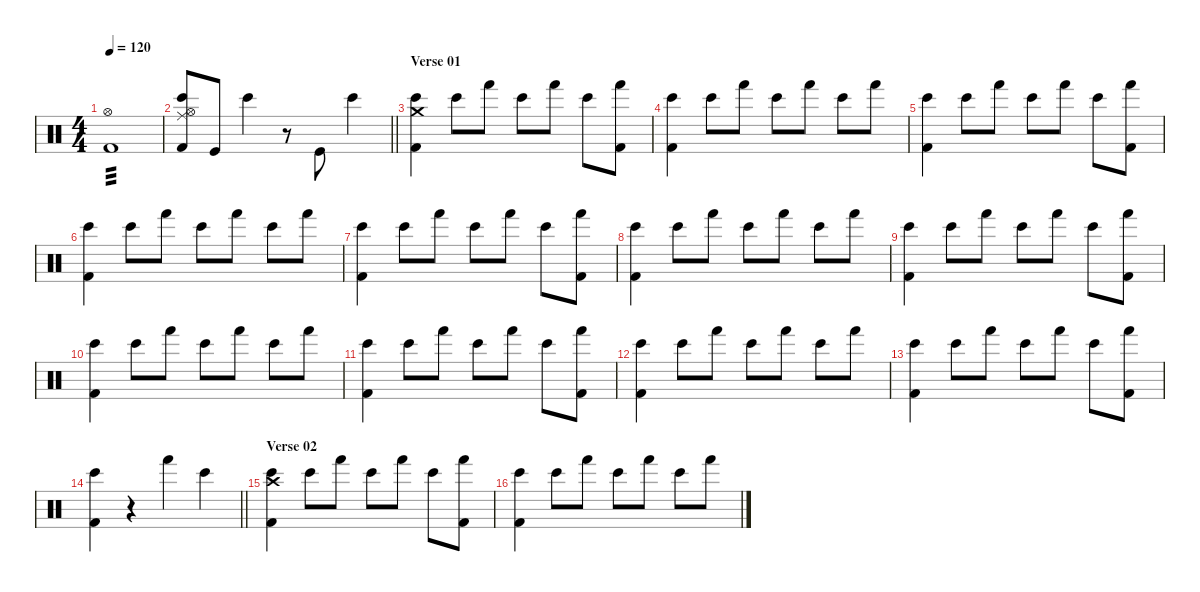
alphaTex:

\defaultSystemsLayout 4
\hideDynamics
\bracketExtendMode nobrackets
\singleTrackTrackNamePolicy hidden
\multiTrackTrackNamePolicy hidden
\firstSystemTrackNameMode fullname
\firstSystemTrackNameOrientation horizontal
\otherSystemsTrackNameOrientation horizontal
\track ("Bateria" "drm.") {instrument percussion}
\staff {score}
\articulation defaults
\ts (4 4)
\tempo 120
\clef neutral
\ks c
("Hi-Hat (open)" "Kick (hit) 2").1{tp 3 dy f beam Down} |
\barLineRight lightlight
("Hi-Hat (open)" "Kick (hit) 2" "Bongo High (hit)" "Ride (middle)").8{beam Up} "Kick (hit)".8{dy ff beam Up} "Bongo High (hit)".4{dy fff beam Down} r.8{beam Down} "Kick (hit)".8{dy ff beam Up} "Bongo High (hit)".4{dy fff beam Down} |
\section ("" "Verse 01")
("Kick (hit) 2" "Bongo High (hit)" "Crash medium (hit)").4{dy f beam Down} "Bongo High (hit)".8{beam Down} "Hand (hit)".8{dy mf beam Down} "Bongo High (hit)".8{dy f beam Down} "Hand (hit)".8{dy mf beam Down} "Bongo High (hit)".8{dy f beam Down} ("Kick (hit) 2" "Hand (hit)").8{beam Down} |
("Kick (hit) 2" "Bongo High (hit)").4{beam Down} "Bongo High (hit)".8{beam Down} "Hand (hit)".8{dy mf beam Down} "Bongo High (hit)".8{dy f beam Down} "Hand (hit)".8{dy mf beam Down} "Bongo High (hit)".8{dy f beam Down} "Hand (hit)".8{dy mf beam Down} |
("Kick (hit) 2" "Bongo High (hit)").4{dy f beam Down} "Bongo High (hit)".8{beam Down} "Hand (hit)".8{dy mf beam Down} "Bongo High (hit)".8{dy f beam Down} "Hand (hit)".8{dy mf beam Down} "Bongo High (hit)".8{dy f beam Down} ("Kick (hit) 2" "Hand (hit)").8{beam Down} |
("Kick (hit) 2" "Bongo High (hit)").4{beam Down} "Bongo High (hit)".8{beam Down} "Hand (hit)".8{dy mf beam Down} "Bongo High (hit)".8{dy f beam Down} "Hand (hit)".8{dy mf beam Down} "Bongo High (hit)".8{dy f beam Down} "Hand (hit)".8{dy mf beam Down} |
("Kick (hit) 2" "Bongo High (hit)").4{dy f beam Down} "Bongo High (hit)".8{beam Down} "Hand (hit)".8{dy mf beam Down} "Bongo High (hit)".8{dy f beam Down} "Hand (hit)".8{dy mf beam Down} "Bongo High (hit)".8{dy f beam Down} ("Kick (hit) 2" "Hand (hit)").8{beam Down} |
("Kick (hit) 2" "Bongo High (hit)").4{beam Down} "Bongo High (hit)".8{beam Down} "Hand (hit)".8{dy mf beam Down} "Bongo High (hit)".8{dy f beam Down} "Hand (hit)".8{dy mf beam Down} "Bongo High (hit)".8{dy f beam Down} "Hand (hit)".8{dy mf beam Down} |
("Kick (hit) 2" "Bongo High (hit)").4{dy f beam Down} "Bongo High (hit)".8{beam Down} "Hand (hit)".8{dy mf beam Down} "Bongo High (hit)".8{dy f beam Down} "Hand (hit)".8{dy mf beam Down} "Bongo High (hit)".8{dy f beam Down} ("Kick (hit) 2" "Hand (hit)").8{beam Down} |
("Kick (hit) 2" "Bongo High (hit)").4{beam Down} "Bongo High (hit)".8{beam Down} "Hand (hit)".8{dy mf beam Down} "Bongo High (hit)".8{dy f beam Down} "Hand (hit)".8{dy mf beam Down} "Bongo High (hit)".8{dy f beam Down} "Hand (hit)".8{dy mf beam Down} |
("Kick (hit) 2" "Bongo High (hit)").4{dy f beam Down} "Bongo High (hit)".8{beam Down} "Hand (hit)".8{dy mf beam Down} "Bongo High (hit)".8{dy f beam Down} "Hand (hit)".8{dy mf beam Down} "Bongo High (hit)".8{dy f beam Down} ("Kick (hit) 2" "Hand (hit)").8{beam Down} |
("Kick (hit) 2" "Bongo High (hit)").4{beam Down} "Bongo High (hit)".8{beam Down} "Hand (hit)".8{dy mf beam Down} "Bongo High (hit)".8{dy f beam Down} "Hand (hit)".8{dy mf beam Down} "Bongo High (hit)".8{dy f beam Down} "Hand (hit)".8{dy mf beam Down} |
("Kick (hit) 2" "Bongo High (hit)").4{dy f beam Down} "Bongo High (hit)".8{beam Down} "Hand (hit)".8{dy mf beam Down} "Bongo High (hit)".8{dy f beam Down} "Hand (hit)".8{dy mf beam Down} "Bongo High (hit)".8{dy f beam Down} ("Kick (hit) 2" "Hand (hit)").8{beam Down} |
\barLineRight lightlight
("Kick (hit) 2" "Bongo High (hit)").4{beam Down} r.4{beam Down} "Hand (hit)".4{dy ff beam Down} "Bongo High (hit)".4{dy fff beam Down} |
\section ("" "Verse 02")
("Kick (hit) 2" "Bongo High (hit)" "Crash high (hit)").4{dy f beam Down} "Bongo High (hit)".8{beam Down} "Hand (hit)".8{dy mf beam Down} "Bongo High (hit)".8{dy f beam Down} "Hand (hit)".8{dy mf beam Down} "Bongo High (hit)".8{dy f beam Down} ("Kick (hit) 2" "Hand (hit)").8{beam Down} |
("Kick (hit) 2" "Bongo High (hit)").4{beam Down} "Bongo High (hit)".8{beam Down} "Hand (hit)".8{dy mf beam Down} "Bongo High (hit)".8{dy f beam Down} "Hand (hit)".8{dy mf beam Down} "Bongo High (hit)".8{dy f beam Down} "Hand (hit)".8{dy mf beam Down}
